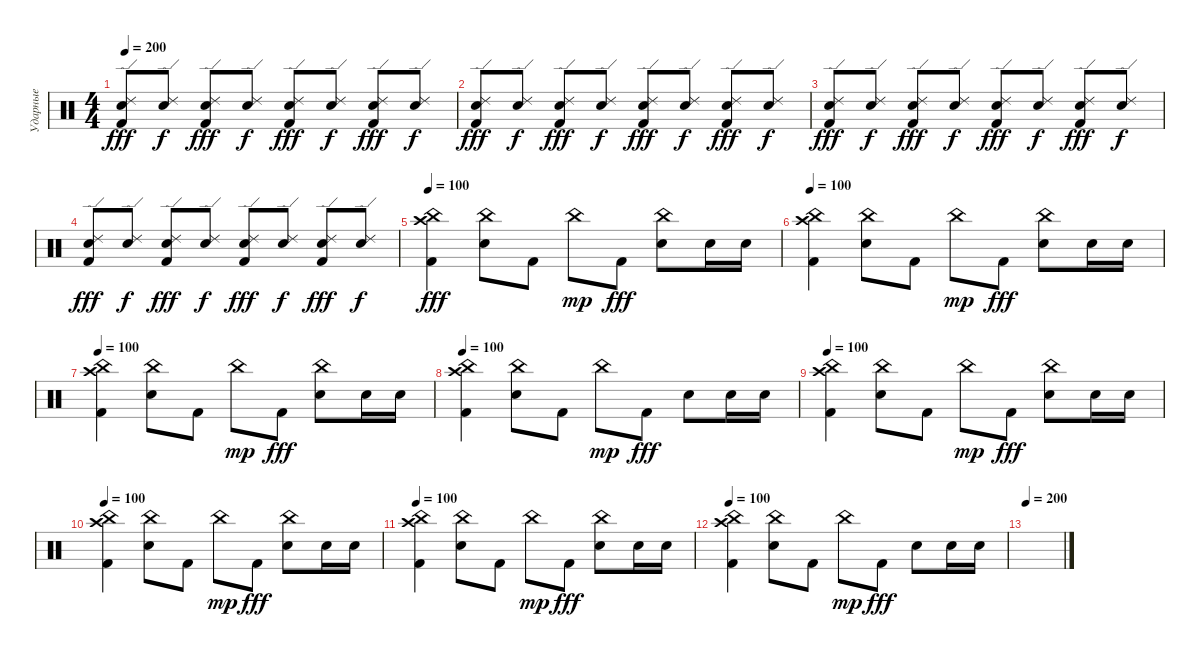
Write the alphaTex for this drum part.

\track ("Ударные" "Ударные") {instrument percussion}
\staff {score}
\articulation defaults
\ts (4 4)
\tempo 200
\clef neutral
\ks c
("Ride (edge) 2" "Electric Snare (hit)" "Kick (hit) 2").8{dy fff} ("Ride (edge) 2" "Electric Snare (hit)").8{dy f} ("Ride (edge) 2" "Electric Snare (hit)" "Kick (hit) 2").8{dy fff} ("Ride (edge) 2" "Electric Snare (hit)").8{dy f} ("Ride (edge) 2" "Electric Snare (hit)" "Kick (hit) 2").8{dy fff} ("Ride (edge) 2" "Electric Snare (hit)").8{dy f} ("Ride (edge) 2" "Electric Snare (hit)" "Kick (hit) 2").8{dy fff} ("Ride (edge) 2" "Electric Snare (hit)").8{dy f} |
("Ride (edge) 2" "Electric Snare (hit)" "Kick (hit) 2").8{dy fff} ("Ride (edge) 2" "Electric Snare (hit)").8{dy f} ("Ride (edge) 2" "Electric Snare (hit)" "Kick (hit) 2").8{dy fff} ("Ride (edge) 2" "Electric Snare (hit)").8{dy f} ("Ride (edge) 2" "Electric Snare (hit)" "Kick (hit) 2").8{dy fff} ("Ride (edge) 2" "Electric Snare (hit)").8{dy f} ("Ride (edge) 2" "Electric Snare (hit)" "Kick (hit) 2").8{dy fff} ("Ride (edge) 2" "Electric Snare (hit)").8{dy f} |
("Ride (edge) 2" "Electric Snare (hit)" "Kick (hit) 2").8{dy fff} ("Ride (edge) 2" "Electric Snare (hit)").8{dy f} ("Ride (edge) 2" "Electric Snare (hit)" "Kick (hit) 2").8{dy fff} ("Ride (edge) 2" "Electric Snare (hit)").8{dy f} ("Ride (edge) 2" "Electric Snare (hit)" "Kick (hit) 2").8{dy fff} ("Ride (edge) 2" "Electric Snare (hit)").8{dy f} ("Ride (edge) 2" "Electric Snare (hit)" "Kick (hit) 2").8{dy fff} ("Ride (edge) 2" "Electric Snare (hit)").8{dy f} |
("Ride (edge) 2" "Electric Snare (hit)" "Kick (hit) 2").8{dy fff} ("Ride (edge) 2" "Electric Snare (hit)").8{dy f} ("Ride (edge) 2" "Electric Snare (hit)" "Kick (hit) 2").8{dy fff} ("Ride (edge) 2" "Electric Snare (hit)").8{dy f} ("Ride (edge) 2" "Electric Snare (hit)" "Kick (hit) 2").8{dy fff} ("Ride (edge) 2" "Electric Snare (hit)").8{dy f} ("Ride (edge) 2" "Electric Snare (hit)" "Kick (hit) 2").8{dy fff} ("Ride (edge) 2" "Electric Snare (hit)").8{dy f} |
\tempo 100
("Crash high (hit)" "China (hit)" "Kick (hit) 2").4{dy fff} ("China (hit)" "Electric Snare (hit)").8 "Kick (hit) 2".8 "China (hit)".8{dy mp} "Kick (hit) 2".8{dy fff} ("China (hit)" "Electric Snare (hit)").8 "Electric Snare (hit)".16 "Electric Snare (hit)".16 |
\tempo 100
("Crash high (hit)" "China (hit)" "Kick (hit) 2").4 ("China (hit)" "Electric Snare (hit)").8 "Kick (hit) 2".8 "China (hit)".8{dy mp} "Kick (hit) 2".8{dy fff} ("China (hit)" "Electric Snare (hit)").8 "Electric Snare (hit)".16 "Electric Snare (hit)".16 |
\tempo 100
("Crash high (hit)" "China (hit)" "Kick (hit) 2").4 ("China (hit)" "Electric Snare (hit)").8 "Kick (hit) 2".8 "China (hit)".8{dy mp} "Kick (hit) 2".8{dy fff} ("China (hit)" "Electric Snare (hit)").8 "Electric Snare (hit)".16 "Electric Snare (hit)".16 |
\tempo 100
("Crash high (hit)" "China (hit)" "Kick (hit) 2").4 ("China (hit)" "Electric Snare (hit)").8 "Kick (hit) 2".8 "China (hit)".8{dy mp} "Kick (hit) 2".8{dy fff} "Electric Snare (hit)".8 "Electric Snare (hit)".16 "Electric Snare (hit)".16 |
\tempo 100
("Crash high (hit)" "China (hit)" "Kick (hit) 2").4 ("China (hit)" "Electric Snare (hit)").8 "Kick (hit) 2".8 "China (hit)".8{dy mp} "Kick (hit) 2".8{dy fff} ("China (hit)" "Electric Snare (hit)").8 "Electric Snare (hit)".16 "Electric Snare (hit)".16 |
\tempo 100
("Crash high (hit)" "China (hit)" "Kick (hit) 2").4 ("China (hit)" "Electric Snare (hit)").8 "Kick (hit) 2".8 "China (hit)".8{dy mp} "Kick (hit) 2".8{dy fff} ("China (hit)" "Electric Snare (hit)").8 "Electric Snare (hit)".16 "Electric Snare (hit)".16 |
\tempo 100
("Crash high (hit)" "China (hit)" "Kick (hit) 2").4 ("China (hit)" "Electric Snare (hit)").8 "Kick (hit) 2".8 "China (hit)".8{dy mp} "Kick (hit) 2".8{dy fff} ("China (hit)" "Electric Snare (hit)").8 "Electric Snare (hit)".16 "Electric Snare (hit)".16 |
\tempo 100
("Crash high (hit)" "China (hit)" "Kick (hit) 2").4 ("China (hit)" "Electric Snare (hit)").8 "Kick (hit) 2".8 "China (hit)".8{dy mp} "Kick (hit) 2".8{dy fff} "Electric Snare (hit)".8 "Electric Snare (hit)".16 "Electric Snare (hit)".16 |
\tempo 200
